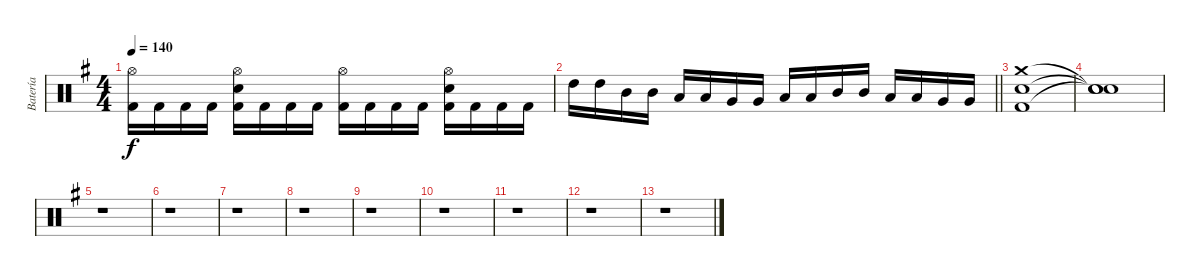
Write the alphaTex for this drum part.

\track ("Batería" "Batería") {instrument percussion}
\staff {score}
\articulation defaults
\ts (4 4)
\tempo 140
\clef neutral
\ks g
("Hi-Hat (open)" "Kick (hit) 2").16{dy f} "Kick (hit) 2".16 "Kick (hit) 2".16 "Kick (hit) 2".16 ("Hi-Hat (open)" "Snare (hit) 2" "Kick (hit) 2").16 "Kick (hit) 2".16 "Kick (hit) 2".16 "Kick (hit) 2".16 ("Hi-Hat (open)" "Kick (hit) 2").16 "Kick (hit) 2".16 "Kick (hit) 2".16 "Kick (hit) 2".16 ("Hi-Hat (open)" "Snare (hit) 2" "Kick (hit) 2").16 "Kick (hit) 2".16 "Kick (hit) 2".16 "Kick (hit) 2".16 |
\barLineRight lightlight "High Tom (hit)".16 "High Tom (hit)".16 "Mid Tom (hit)".16 "Mid Tom (hit)".16 "Low Tom (hit)".16 "Low Tom (hit)".16 "Very Low Tom (hit)".16 "Very Low Tom (hit)".16 "Low Floor Tom (hit)".16 "Low Floor Tom (hit)".16 "Mid Tom (hit)".16 "Mid Tom (hit)".16 "Low Tom (hit)".16 "Low Tom (hit)".16 "Very Low Tom (hit)".16 "Very Low Tom (hit)".16
|
("Crash medium (hit)" "Snare (hit) 2" "Kick (hit) 2").1{volume 4} |
("Snare (hit)"{t} "Snare (hit)"{t} "Snare (hit)"{t}).1 |
r.1 |
r.1 |
r.1 |
r.1 |
r.1 |
r.1 |
r.1 |
r.1 |
r.1
